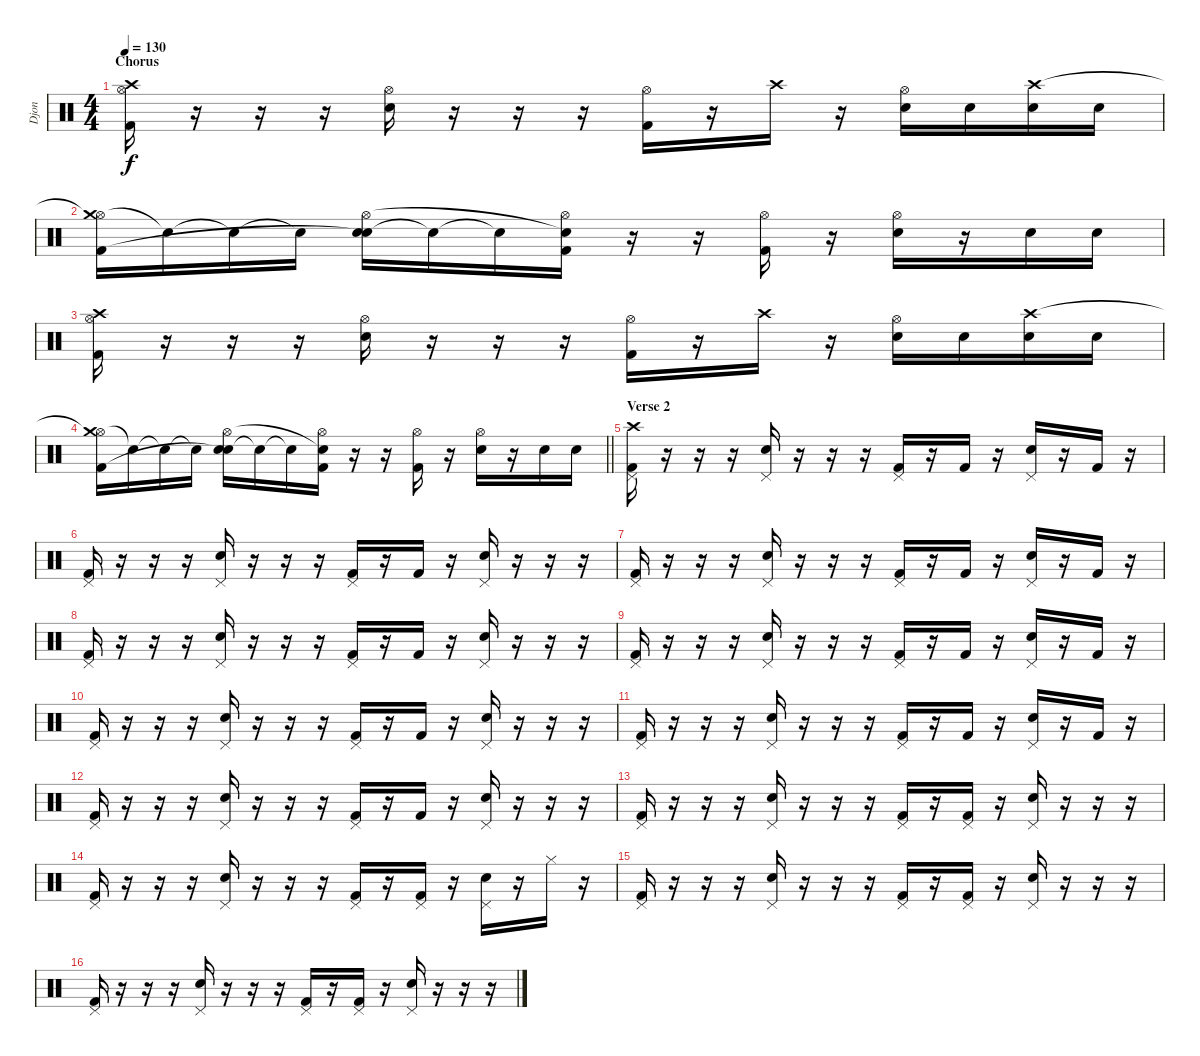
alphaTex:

\track ("Djon" "Djon") {instrument percussion}
\staff {score}
\articulation defaults
\ts (4 4)
\section ("" "Chorus")
\tempo 130
\clef neutral
\ks c
("Hi-Hat (open)" "Crash high (hit)" "Kick (hit) 2").16{dy f} r.16 r.16 r.16 ("Hi-Hat (open)" "Snare (hit) 2").16 r.16 r.16 r.16 ("Hi-Hat (open)" "Kick (hit) 2").16 r.16 "Crash high (hit)".16 r.16 ("Hi-Hat (open)" "Snare (hit) 2").16 "Snare (hit) 2".16 ("Snare (hit) 2" "Crash high (hit)").16 "Snare (hit) 2".16 |
("Hi-Hat (open)" "Crash medium (hit)"{t} "Kick (hit) 2").16 "Snare (hit)"{t}.16 "Snare (hit)"{t}.16 "Snare (hit)"{t}.16 ("Snare (hit) 2" "Hi-Hat (open)" "Snare (hit)"{t}).16 "Snare (hit)"{t}.16 "Snare (hit)"{t}.16 ("Hi-Hat (open)" "Snare (hit)"{t} "Kick (hit) 2").16 r.16 r.16 ("Hi-Hat (open)" "Kick (hit) 2").16 r.16 ("Snare (hit) 2" "Hi-Hat (open)").16 r.16 "Snare (hit) 2".16 "Snare (hit) 2".16 |
("Hi-Hat (open)" "Crash high (hit)" "Kick (hit) 2").16 r.16 r.16 r.16 ("Hi-Hat (open)" "Snare (hit) 2").16 r.16 r.16 r.16 ("Hi-Hat (open)" "Kick (hit) 2").16 r.16 "Crash high (hit)".16 r.16 ("Hi-Hat (open)" "Snare (hit) 2").16 "Snare (hit) 2".16 ("Snare (hit) 2" "Crash high (hit)").16 "Snare (hit) 2".16 |
\barLineRight lightlight
("Hi-Hat (open)" "Crash medium (hit)"{t} "Kick (hit) 2").16 "Snare (hit)"{t}.16 "Snare (hit)"{t}.16 "Snare (hit)"{t}.16 ("Snare (hit) 2" "Hi-Hat (open)" "Snare (hit)"{t}).16 "Snare (hit)"{t}.16 "Snare (hit)"{t}.16 ("Hi-Hat (open)" "Snare (hit)"{t} "Kick (hit) 2").16 r.16 r.16 ("Hi-Hat (open)" "Kick (hit) 2").16 r.16 ("Snare (hit) 2" "Hi-Hat (open)").16 r.16 "Snare (hit) 2".16 "Snare (hit) 2".16 |
\section ("" "Verse 2")
("Pedal Hi-Hat (hit)" "Crash high (hit)" "Kick (hit) 2").16 r.16 r.16 r.16 ("Pedal Hi-Hat (hit)" "Snare (hit) 2").16 r.16 r.16 r.16 ("Pedal Hi-Hat (hit)" "Kick (hit) 2").16 r.16 "Kick (hit) 2".16 r.16 ("Pedal Hi-Hat (hit)" "Snare (hit) 2").16 r.16 "Kick (hit) 2".16 r.16 |
("Pedal Hi-Hat (hit)" "Kick (hit) 2").16 r.16 r.16 r.16 ("Pedal Hi-Hat (hit)" "Snare (hit) 2").16 r.16 r.16 r.16 ("Pedal Hi-Hat (hit)" "Kick (hit) 2").16 r.16 "Kick (hit) 2".16 r.16 ("Pedal Hi-Hat (hit)" "Snare (hit) 2").16 r.16 r.16 r.16 |
("Pedal Hi-Hat (hit)" "Kick (hit) 2").16 r.16 r.16 r.16 ("Pedal Hi-Hat (hit)" "Snare (hit) 2").16 r.16 r.16 r.16 ("Pedal Hi-Hat (hit)" "Kick (hit) 2").16 r.16 "Kick (hit) 2".16 r.16 ("Pedal Hi-Hat (hit)" "Snare (hit) 2").16 r.16 "Kick (hit) 2".16 r.16 |
("Pedal Hi-Hat (hit)" "Kick (hit) 2").16 r.16 r.16 r.16 ("Pedal Hi-Hat (hit)" "Snare (hit) 2").16 r.16 r.16 r.16 ("Pedal Hi-Hat (hit)" "Kick (hit) 2").16 r.16 "Kick (hit) 2".16 r.16 ("Pedal Hi-Hat (hit)" "Snare (hit) 2").16 r.16 r.16 r.16 |
("Pedal Hi-Hat (hit)" "Kick (hit) 2").16 r.16 r.16 r.16 ("Pedal Hi-Hat (hit)" "Snare (hit) 2").16 r.16 r.16 r.16 ("Pedal Hi-Hat (hit)" "Kick (hit) 2").16 r.16 "Kick (hit) 2".16 r.16 ("Pedal Hi-Hat (hit)" "Snare (hit) 2").16 r.16 "Kick (hit) 2".16 r.16 |
("Pedal Hi-Hat (hit)" "Kick (hit) 2").16 r.16 r.16 r.16 ("Pedal Hi-Hat (hit)" "Snare (hit) 2").16 r.16 r.16 r.16 ("Pedal Hi-Hat (hit)" "Kick (hit) 2").16 r.16 "Kick (hit) 2".16 r.16 ("Pedal Hi-Hat (hit)" "Snare (hit) 2").16 r.16 r.16 r.16 |
("Pedal Hi-Hat (hit)" "Kick (hit) 2").16 r.16 r.16 r.16 ("Pedal Hi-Hat (hit)" "Snare (hit) 2").16 r.16 r.16 r.16 ("Pedal Hi-Hat (hit)" "Kick (hit) 2").16 r.16 "Kick (hit) 2".16 r.16 ("Pedal Hi-Hat (hit)" "Snare (hit) 2").16 r.16 "Kick (hit) 2".16 r.16 |
("Pedal Hi-Hat (hit)" "Kick (hit) 2").16 r.16 r.16 r.16 ("Pedal Hi-Hat (hit)" "Snare (hit) 2").16 r.16 r.16 r.16 ("Pedal Hi-Hat (hit)" "Kick (hit) 2").16 r.16 "Kick (hit) 2".16 r.16 ("Pedal Hi-Hat (hit)" "Snare (hit) 2").16 r.16 r.16 r.16 |
("Pedal Hi-Hat (hit)" "Kick (hit) 2").16 r.16 r.16 r.16 ("Pedal Hi-Hat (hit)" "Snare (hit) 2").16 r.16 r.16 r.16 ("Pedal Hi-Hat (hit)" "Kick (hit) 2").16 r.16 ("Pedal Hi-Hat (hit)" "Kick (hit) 2").16 r.16 ("Pedal Hi-Hat (hit)" "Snare (hit) 2").16 r.16 r.16 r.16 |
("Pedal Hi-Hat (hit)" "Kick (hit) 2").16 r.16 r.16 r.16 ("Pedal Hi-Hat (hit)" "Snare (hit) 2").16 r.16 r.16 r.16 ("Pedal Hi-Hat (hit)" "Kick (hit) 2").16 r.16 ("Pedal Hi-Hat (hit)" "Kick (hit) 2").16 r.16 ("Pedal Hi-Hat (hit)" "Snare (hit) 2").16 r.16 "Hi-Hat (closed)".16 r.16 |
("Pedal Hi-Hat (hit)" "Kick (hit) 2").16 r.16 r.16 r.16 ("Pedal Hi-Hat (hit)" "Snare (hit) 2").16 r.16 r.16 r.16 ("Pedal Hi-Hat (hit)" "Kick (hit) 2").16 r.16 ("Pedal Hi-Hat (hit)" "Kick (hit) 2").16 r.16 ("Pedal Hi-Hat (hit)" "Snare (hit) 2").16 r.16 r.16 r.16 |
("Pedal Hi-Hat (hit)" "Kick (hit) 2").16 r.16 r.16 r.16 ("Pedal Hi-Hat (hit)" "Snare (hit) 2").16 r.16 r.16 r.16 ("Pedal Hi-Hat (hit)" "Kick (hit) 2").16 r.16 ("Pedal Hi-Hat (hit)" "Kick (hit) 2").16 r.16 ("Pedal Hi-Hat (hit)" "Snare (hit) 2").16 r.16 r.16 r.16
